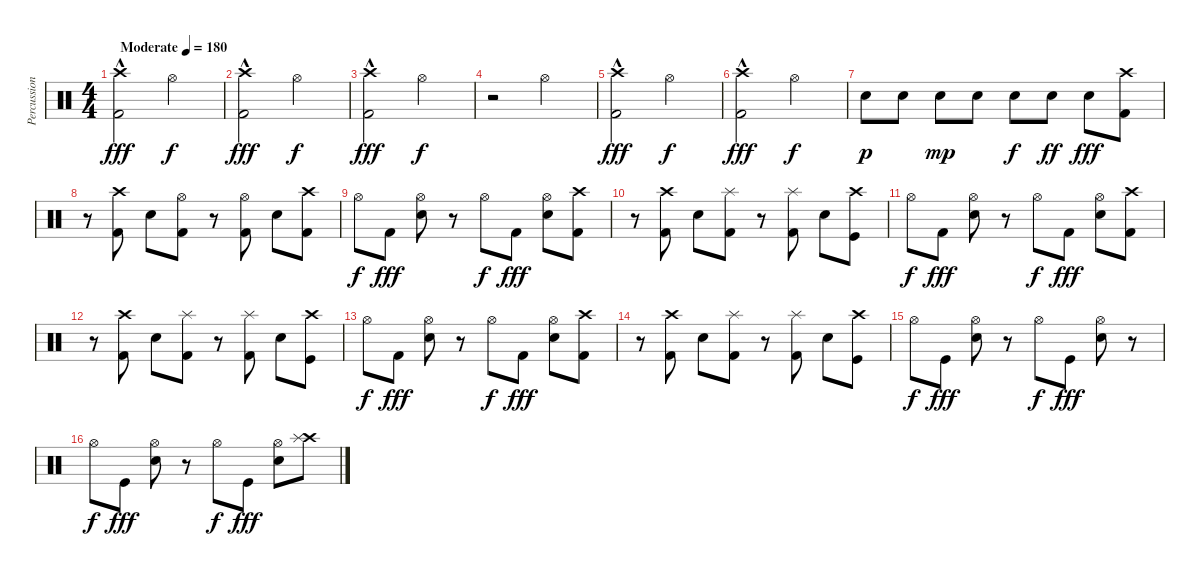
\track ("Percussion" "Percussion") {instrument percussion}
\staff
\articulation defaults
\ts (4 4)
\tempo (180 "Moderate")
\clef neutral
\ks c
("Crash high (hit)"{hac} "Kick (hit) 2"{hac}).2{dy fff} "Hi-Hat (open)".2{dy f} |
("Crash high (hit)"{hac} "Kick (hit) 2"{hac}).2{dy fff} "Hi-Hat (open)".2{dy f} |
("Crash high (hit)"{hac} "Kick (hit) 2"{hac}).2{dy fff} "Hi-Hat (open)".2{dy f} |
r.2 "Hi-Hat (open)".2 |
("Crash high (hit)"{hac} "Kick (hit) 2"{hac}).2{dy fff} "Hi-Hat (open)".2{dy f} |
("Crash high (hit)"{hac} "Kick (hit) 2"{hac}).2{dy fff} "Hi-Hat (open)".2{dy f} |
"Electric Snare (hit)".8{dy p} "Electric Snare (hit)".8 "Electric Snare (hit)".8{dy mp} "Electric Snare (hit)".8 "Electric Snare (hit)".8{dy f} "Electric Snare (hit)".8{dy ff} "Electric Snare (hit)".8{dy fff} ("Crash high (hit)" "Kick (hit) 2").8 |
r.8 ("Crash high (hit)" "Kick (hit) 2").8 "Electric Snare (hit)".8 ("Hi-Hat (open)" "Kick (hit) 2").8 r.8 ("Hi-Hat (open)" "Kick (hit) 2").8 "Electric Snare (hit)".8 ("Crash high (hit)" "Kick (hit) 2").8 |
"Hi-Hat (open)".8{dy f} "Kick (hit) 2".8{dy fff} ("Hi-Hat (open)" "Electric Snare (hit)").8 r.8 "Hi-Hat (open)".8{dy f} "Kick (hit) 2".8{dy fff} ("Hi-Hat (open)" "Electric Snare (hit)").8 ("Crash high (hit)" "Kick (hit) 2").8 |
r.8 ("Crash high (hit)" "Kick (hit) 2").8 "Electric Snare (hit)".8 ("Splash (hit)" "Kick (hit) 2").8 r.8 ("Splash (hit)" "Kick (hit) 2").8 "Electric Snare (hit)".8 ("Crash high (hit)" "Kick (hit)").8 |
"Hi-Hat (open)".8{dy f} "Kick (hit) 2".8{dy fff} ("Hi-Hat (open)" "Electric Snare (hit)").8 r.8 "Hi-Hat (open)".8{dy f} "Kick (hit) 2".8{dy fff} ("Hi-Hat (open)" "Electric Snare (hit)").8 ("Crash high (hit)" "Kick (hit) 2").8 |
r.8 ("Crash high (hit)" "Kick (hit) 2").8 "Electric Snare (hit)".8 ("Splash (hit)" "Kick (hit) 2").8 r.8 ("Splash (hit)" "Kick (hit) 2").8 "Electric Snare (hit)".8 ("Crash high (hit)" "Kick (hit)").8 |
"Hi-Hat (open)".8{dy f} "Kick (hit) 2".8{dy fff} ("Hi-Hat (open)" "Electric Snare (hit)").8 r.8 "Hi-Hat (open)".8{dy f} "Kick (hit) 2".8{dy fff} ("Hi-Hat (open)" "Electric Snare (hit)").8 ("Crash high (hit)" "Kick (hit) 2").8 |
r.8 ("Crash high (hit)" "Kick (hit) 2").8 "Electric Snare (hit)".8 ("Splash (hit)" "Kick (hit) 2").8 r.8 ("Splash (hit)" "Kick (hit) 2").8 "Electric Snare (hit)".8 ("Crash high (hit)" "Kick (hit)").8 |
"Hi-Hat (open)".8{dy f} "Kick (hit)".8{dy fff} ("Hi-Hat (open)" "Electric Snare (hit)").8 r.8 "Hi-Hat (open)".8{dy f} "Kick (hit)".8{dy fff} ("Hi-Hat (open)" "Electric Snare (hit)").8 r.8 |
"Hi-Hat (open)".8{dy f} "Kick (hit)".8{dy fff} ("Hi-Hat (open)" "Electric Snare (hit)").8 r.8 "Hi-Hat (open)".8{dy f} "Kick (hit)".8{dy fff} ("Hi-Hat (open)" "Electric Snare (hit)").8 ("Crash high (hit)" "Splash (hit)").8
